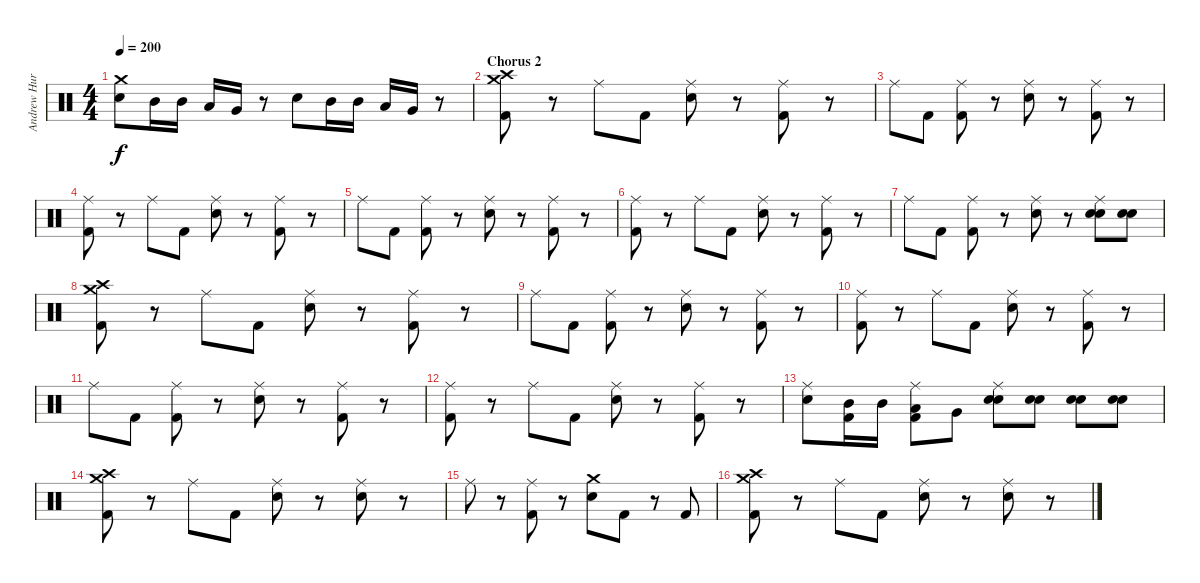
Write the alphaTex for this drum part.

\track ("Andrew Hurley (Drums)" "Andrew Hur") {instrument percussion}
\staff {score}
\articulation defaults
\ts (4 4)
\tempo 200
\clef neutral
\ks c
("Crash medium (hit)" "Electric Snare (hit)").8{dy f} "Mid Tom (hit)".16 "Mid Tom (hit)".16 "Low Tom (hit)".16 "Very Low Tom (hit)".16 r.8 "Electric Snare (hit)".8 "Mid Tom (hit)".16 "Mid Tom (hit)".16 "Low Tom (hit)".16 "Very Low Tom (hit)".16 r.8 |
\section ("" "Chorus 2")
("Crash medium (hit)" "Crash high (hit)" "Kick (hit) 2").8 r.8 "Ride (middle)".8 "Kick (hit) 2".8 ("Ride (middle)" "Electric Snare (hit)").8 r.8 ("Ride (middle)" "Kick (hit) 2").8 r.8 |
"Ride (middle)".8 "Kick (hit) 2".8 ("Ride (middle)" "Kick (hit) 2").8 r.8 ("Ride (middle)" "Electric Snare (hit)").8 r.8 ("Ride (middle)" "Kick (hit) 2").8 r.8 |
("Ride (middle)" "Kick (hit) 2").8 r.8 "Ride (middle)".8 "Kick (hit) 2".8 ("Ride (middle)" "Electric Snare (hit)").8 r.8 ("Ride (middle)" "Kick (hit) 2").8 r.8 |
"Ride (middle)".8 "Kick (hit) 2".8 ("Ride (middle)" "Kick (hit) 2").8 r.8 ("Ride (middle)" "Electric Snare (hit)").8 r.8 ("Ride (middle)" "Kick (hit) 2").8 r.8 |
("Ride (middle)" "Kick (hit) 2").8 r.8 "Ride (middle)".8 "Kick (hit) 2".8 ("Ride (middle)" "Electric Snare (hit)").8 r.8 ("Ride (middle)" "Kick (hit) 2").8 r.8 |
"Ride (middle)".8 "Kick (hit) 2".8 ("Ride (middle)" "Kick (hit) 2").8 r.8 ("Ride (middle)" "Electric Snare (hit)").8 r.8 ("Ride (middle)" "Electric Snare (hit)" "Snare (hit) 2").8 ("Electric Snare (hit)" "Snare (hit) 2").8 |
("Crash medium (hit)" "Crash high (hit)" "Kick (hit) 2").8 r.8 "Ride (middle)".8 "Kick (hit) 2".8 ("Ride (middle)" "Electric Snare (hit)").8 r.8 ("Ride (middle)" "Kick (hit) 2").8 r.8 |
"Ride (middle)".8 "Kick (hit) 2".8 ("Ride (middle)" "Kick (hit) 2").8 r.8 ("Ride (middle)" "Electric Snare (hit)").8 r.8 ("Ride (middle)" "Kick (hit) 2").8 r.8 |
("Ride (middle)" "Kick (hit) 2").8 r.8 "Ride (middle)".8 "Kick (hit) 2".8 ("Ride (middle)" "Electric Snare (hit)").8 r.8 ("Ride (middle)" "Kick (hit) 2").8 r.8 |
"Ride (middle)".8 "Kick (hit) 2".8 ("Ride (middle)" "Kick (hit) 2").8 r.8 ("Ride (middle)" "Electric Snare (hit)").8 r.8 ("Ride (middle)" "Kick (hit) 2").8 r.8 |
("Ride (middle)" "Kick (hit) 2").8 r.8 "Ride (middle)".8 "Kick (hit) 2".8 ("Ride (middle)" "Electric Snare (hit)").8 r.8 ("Ride (middle)" "Kick (hit) 2").8 r.8 |
("Ride (middle)" "Electric Snare (hit)").8 ("Mid Tom (hit)" "Kick (hit) 2").16 "Mid Tom (hit)".16 ("Ride (middle)" "Low Tom (hit)" "Kick (hit) 2").8 "Very Low Tom (hit)".8 ("Ride (middle)" "Electric Snare (hit)" "Snare (hit) 2").8 ("Electric Snare (hit)" "Snare (hit) 2").8 ("Electric Snare (hit)" "Snare (hit) 2").8 ("Electric Snare (hit)" "Snare (hit) 2").8 |
("Crash medium (hit)" "Crash high (hit)" "Kick (hit) 2").8 r.8 "Ride (middle)".8 "Kick (hit) 2".8 ("Ride (middle)" "Electric Snare (hit)").8 r.8 ("Ride (middle)" "Electric Snare (hit)").8 r.8 |
"Ride (middle)".8 r.8 ("Ride (middle)" "Kick (hit) 2").8 r.8 ("Crash medium (hit)" "Electric Snare (hit)").8 "Kick (hit) 2".8 r.8 "Kick (hit) 2".8 |
("Crash medium (hit)" "Crash high (hit)" "Kick (hit) 2").8 r.8 "Ride (middle)".8 "Kick (hit) 2".8 ("Ride (middle)" "Electric Snare (hit)").8 r.8 ("Ride (middle)" "Electric Snare (hit)").8 r.8
